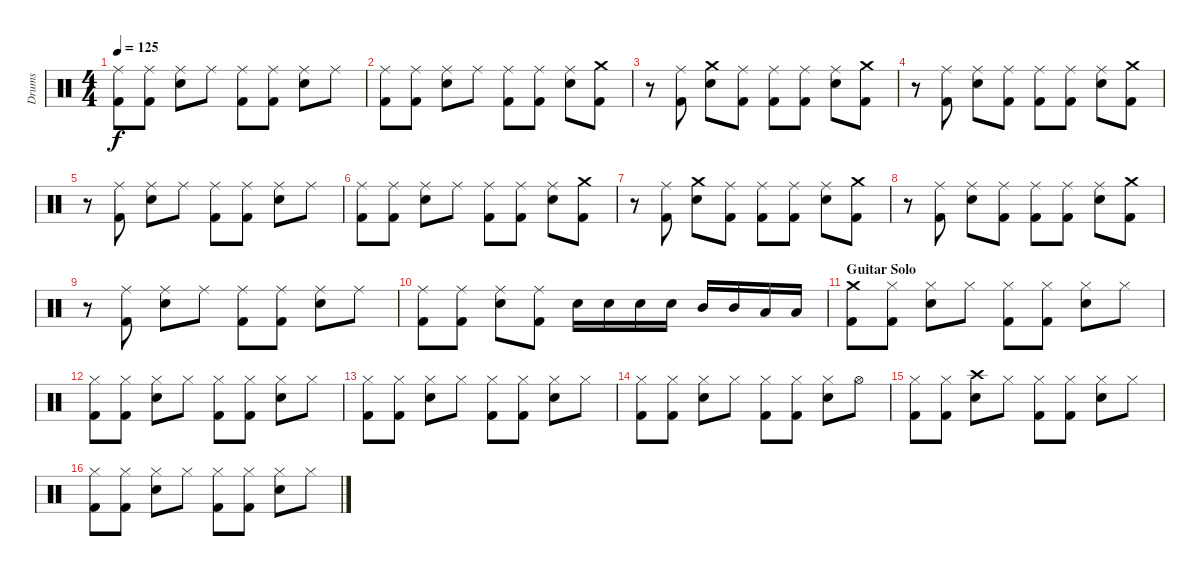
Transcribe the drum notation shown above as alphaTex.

\track ("Drums" "Drums") {instrument percussion}
\staff {score}
\articulation defaults
\ts (4 4)
\tempo 125
\clef neutral
\ks c
("Ride (middle)" "Kick (hit) 2").8{dy f} ("Ride (middle)" "Kick (hit) 2").8 ("Ride (middle)" "Snare (hit) 2").8 "Ride (middle)".8 ("Ride (middle)" "Kick (hit) 2").8 ("Ride (middle)" "Kick (hit) 2").8 ("Ride (middle)" "Snare (hit) 2").8 "Ride (middle)".8 |
("Ride (middle)" "Kick (hit) 2").8 ("Ride (middle)" "Kick (hit) 2").8 ("Ride (middle)" "Snare (hit) 2").8 "Ride (middle)".8 ("Ride (middle)" "Kick (hit) 2").8 ("Ride (middle)" "Kick (hit) 2").8 ("Ride (middle)" "Snare (hit) 2").8 ("Crash medium (hit)" "Kick (hit) 2").8 |
r.8 ("Ride (middle)" "Kick (hit) 2").8 ("Crash medium (hit)" "Snare (hit) 2").8 ("Ride (middle)" "Kick (hit) 2").8 ("Ride (middle)" "Kick (hit) 2").8 ("Ride (middle)" "Kick (hit) 2").8 ("Ride (middle)" "Snare (hit) 2").8 ("Crash medium (hit)" "Kick (hit) 2").8 |
r.8 ("Ride (middle)" "Kick (hit) 2").8 ("Ride (middle)" "Snare (hit) 2").8 ("Ride (middle)" "Kick (hit) 2").8 ("Ride (middle)" "Kick (hit) 2").8 ("Ride (middle)" "Kick (hit) 2").8 ("Ride (middle)" "Snare (hit) 2").8 ("Crash medium (hit)" "Kick (hit) 2").8 |
r.8 ("Ride (middle)" "Kick (hit) 2").8 ("Ride (middle)" "Snare (hit) 2").8 "Ride (middle)".8 ("Ride (middle)" "Kick (hit) 2").8 ("Ride (middle)" "Kick (hit) 2").8 ("Ride (middle)" "Snare (hit) 2").8 "Ride (middle)".8 |
("Ride (middle)" "Kick (hit) 2").8 ("Ride (middle)" "Kick (hit) 2").8 ("Ride (middle)" "Snare (hit) 2").8 "Ride (middle)".8 ("Ride (middle)" "Kick (hit) 2").8 ("Ride (middle)" "Kick (hit) 2").8 ("Ride (middle)" "Snare (hit) 2").8 ("Crash medium (hit)" "Kick (hit) 2").8 |
r.8 ("Ride (middle)" "Kick (hit) 2").8 ("Crash medium (hit)" "Snare (hit) 2").8 ("Ride (middle)" "Kick (hit) 2").8 ("Ride (middle)" "Kick (hit) 2").8 ("Ride (middle)" "Kick (hit) 2").8 ("Ride (middle)" "Snare (hit) 2").8 ("Crash medium (hit)" "Kick (hit) 2").8 |
r.8 ("Ride (middle)" "Kick (hit) 2").8 ("Ride (middle)" "Snare (hit) 2").8 ("Ride (middle)" "Kick (hit) 2").8 ("Ride (middle)" "Kick (hit) 2").8 ("Ride (middle)" "Kick (hit) 2").8 ("Ride (middle)" "Snare (hit) 2").8 ("Crash medium (hit)" "Kick (hit) 2").8 |
r.8 ("Ride (middle)" "Kick (hit) 2").8 ("Ride (middle)" "Snare (hit) 2").8 "Ride (middle)".8 ("Ride (middle)" "Kick (hit) 2").8 ("Ride (middle)" "Kick (hit) 2").8 ("Ride (middle)" "Snare (hit) 2").8 "Ride (middle)".8 |
("Ride (middle)" "Kick (hit) 2").8 ("Ride (middle)" "Kick (hit) 2").8 ("Ride (middle)" "Snare (hit) 2").8 ("Ride (middle)" "Kick (hit) 2").8 "Snare (hit) 2".16 "Snare (hit) 2".16 "Snare (hit) 2".16 "Snare (hit) 2".16 "Mid Tom (hit)".16 "Mid Tom (hit)".16 "Low Tom (hit)".16 "Low Tom (hit)".16 |
\section ("" "Guitar Solo")
("Crash medium (hit)" "Kick (hit) 2").8 ("Hi-Hat (closed)" "Kick (hit) 2").8 ("Hi-Hat (closed)" "Snare (hit) 2").8 "Hi-Hat (closed)".8 ("Hi-Hat (closed)" "Kick (hit) 2").8 ("Hi-Hat (closed)" "Kick (hit) 2").8 ("Hi-Hat (closed)" "Snare (hit) 2").8 "Hi-Hat (closed)".8 |
("Hi-Hat (closed)" "Kick (hit) 2").8 ("Hi-Hat (closed)" "Kick (hit) 2").8 ("Hi-Hat (closed)" "Snare (hit) 2").8 "Hi-Hat (closed)".8 ("Hi-Hat (closed)" "Kick (hit) 2").8 ("Hi-Hat (closed)" "Kick (hit) 2").8 ("Hi-Hat (closed)" "Snare (hit) 2").8 "Hi-Hat (closed)".8 |
("Hi-Hat (closed)" "Kick (hit) 2").8 ("Hi-Hat (closed)" "Kick (hit) 2").8 ("Hi-Hat (closed)" "Snare (hit) 2").8 "Hi-Hat (closed)".8 ("Hi-Hat (closed)" "Kick (hit) 2").8 ("Hi-Hat (closed)" "Kick (hit) 2").8 ("Hi-Hat (closed)" "Snare (hit) 2").8 "Hi-Hat (closed)".8 |
("Hi-Hat (closed)" "Kick (hit) 2").8 ("Hi-Hat (closed)" "Kick (hit) 2").8 ("Hi-Hat (closed)" "Snare (hit) 2").8 "Hi-Hat (closed)".8 ("Hi-Hat (closed)" "Kick (hit) 2").8 ("Hi-Hat (closed)" "Kick (hit) 2").8 ("Hi-Hat (closed)" "Snare (hit) 2").8 "Hi-Hat (open)".8 |
("Hi-Hat (closed)" "Kick (hit) 2").8 ("Hi-Hat (closed)" "Kick (hit) 2").8 ("Crash high (hit)" "Snare (hit) 2").8 "Hi-Hat (closed)".8 ("Hi-Hat (closed)" "Kick (hit) 2").8 ("Hi-Hat (closed)" "Kick (hit) 2").8 ("Hi-Hat (closed)" "Snare (hit) 2").8 "Hi-Hat (closed)".8 |
("Hi-Hat (closed)" "Kick (hit) 2").8 ("Hi-Hat (closed)" "Kick (hit) 2").8 ("Hi-Hat (closed)" "Snare (hit) 2").8 "Hi-Hat (closed)".8 ("Hi-Hat (closed)" "Kick (hit) 2").8 ("Hi-Hat (closed)" "Kick (hit) 2").8 ("Hi-Hat (closed)" "Snare (hit) 2").8 "Hi-Hat (closed)".8
